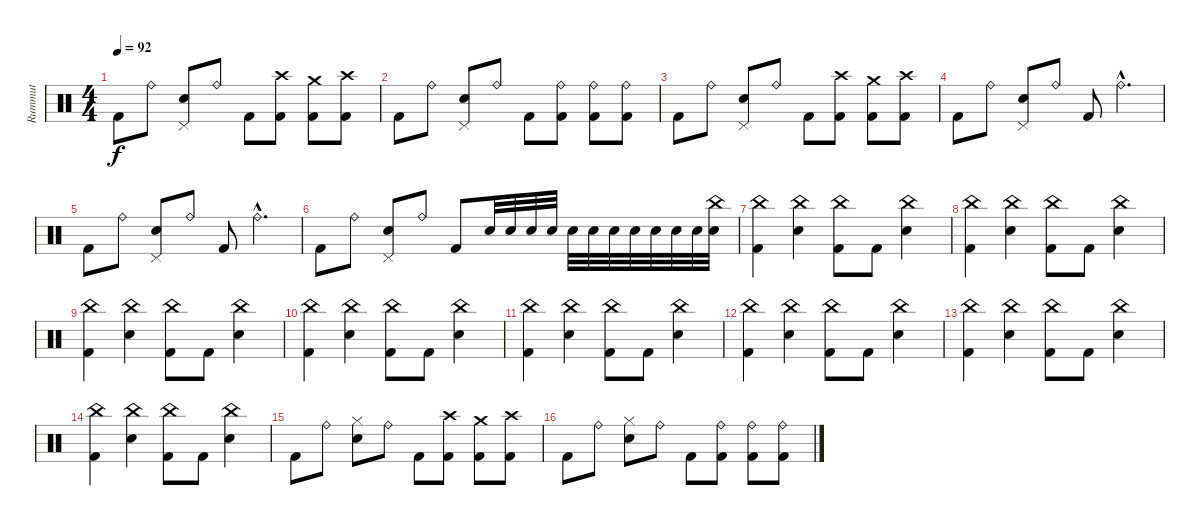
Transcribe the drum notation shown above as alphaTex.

\track ("Rummut" "Rummut") {instrument percussion}
\staff {score}
\articulation defaults
\ts (4 4)
\tempo 92
\clef neutral
\ks c "Kick (hit) 2".8{dy f} "Ride (bell)".8
("Pedal Hi-Hat (hit)" "Snare (hit) 2").8 "Ride (bell)".8 "Kick (hit) 2".8 ("Crash high (hit)" "Kick (hit) 2").8 ("Crash medium (hit)" "Kick (hit) 2").8 ("Crash high (hit)" "Kick (hit) 2").8 |
"Kick (hit) 2".8 "Ride (bell)".8 ("Pedal Hi-Hat (hit)" "Snare (hit) 2").8 "Ride (bell)".8 "Kick (hit) 2".8 ("Ride (bell)" "Kick (hit) 2").8 ("Ride (bell)" "Kick (hit) 2").8 ("Ride (bell)" "Kick (hit) 2").8 |
"Kick (hit) 2".8 "Ride (bell)".8 ("Pedal Hi-Hat (hit)" "Snare (hit) 2").8 "Ride (bell)".8 "Kick (hit) 2".8 ("Crash high (hit)" "Kick (hit) 2").8 ("Crash medium (hit)" "Kick (hit) 2").8 ("Crash high (hit)" "Kick (hit) 2").8 |
"Kick (hit) 2".8 "Ride (bell)".8 ("Pedal Hi-Hat (hit)" "Snare (hit) 2").8 "Ride (bell)".8 "Kick (hit) 2".8 "Ride (bell)"{hac}.4{d} |
"Kick (hit) 2".8 "Ride (bell)".8 ("Pedal Hi-Hat (hit)" "Snare (hit) 2").8 "Ride (bell)".8 "Kick (hit) 2".8 "Ride (bell)"{hac}.4{d} |
"Kick (hit) 2".8 "Ride (bell)".8 ("Pedal Hi-Hat (hit)" "Snare (hit) 2").8 "Ride (bell)".8 "Kick (hit) 2".8 "Snare (hit) 2".32 "Snare (hit) 2".32 "Snare (hit) 2".32 "Snare (hit) 2".32 "Snare (hit) 2".32 "Snare (hit) 2".32 "Snare (hit) 2".32 "Snare (hit) 2".32 "Snare (hit) 2".32 "Snare (hit) 2".32 "Snare (hit) 2".32 ("China (hit)" "Snare (hit) 2").32 |
("China (hit)" "Kick (hit) 2").4 ("China (hit)" "Snare (hit) 2").4 ("China (hit)" "Kick (hit) 2").8 "Kick (hit) 2".8 ("China (hit)" "Snare (hit) 2").4 |
("China (hit)" "Kick (hit) 2").4 ("China (hit)" "Snare (hit) 2").4 ("China (hit)" "Kick (hit) 2").8 "Kick (hit) 2".8 ("China (hit)" "Snare (hit) 2").4 |
("China (hit)" "Kick (hit) 2").4 ("China (hit)" "Snare (hit) 2").4 ("China (hit)" "Kick (hit) 2").8 "Kick (hit) 2".8 ("China (hit)" "Snare (hit) 2").4 |
("China (hit)" "Kick (hit) 2").4 ("China (hit)" "Snare (hit) 2").4 ("China (hit)" "Kick (hit) 2").8 "Kick (hit) 2".8 ("China (hit)" "Snare (hit) 2").4 |
("China (hit)" "Kick (hit) 2").4 ("China (hit)" "Snare (hit) 2").4 ("China (hit)" "Kick (hit) 2").8 "Kick (hit) 2".8 ("China (hit)" "Snare (hit) 2").4 |
("China (hit)" "Kick (hit) 2").4 ("China (hit)" "Snare (hit) 2").4 ("China (hit)" "Kick (hit) 2").8 "Kick (hit) 2".8 ("China (hit)" "Snare (hit) 2").4 |
("China (hit)" "Kick (hit) 2").4 ("China (hit)" "Snare (hit) 2").4 ("China (hit)" "Kick (hit) 2").8 "Kick (hit) 2".8 ("China (hit)" "Snare (hit) 2").4 |
("China (hit)" "Kick (hit) 2").4 ("China (hit)" "Snare (hit) 2").4 ("China (hit)" "Kick (hit) 2").8 "Kick (hit) 2".8 ("China (hit)" "Snare (hit) 2").4 |
"Kick (hit) 2".8 "Ride (bell)".8 ("Hi-Hat (closed)" "Snare (hit) 2").8 "Ride (bell)".8 "Kick (hit) 2".8 ("Crash high (hit)" "Kick (hit) 2").8 ("Crash medium (hit)" "Kick (hit) 2").8 ("Crash high (hit)" "Kick (hit) 2").8 |
"Kick (hit) 2".8 "Ride (bell)".8 ("Hi-Hat (closed)" "Snare (hit) 2").8 "Ride (bell)".8 "Kick (hit) 2".8 ("Ride (bell)" "Kick (hit) 2").8 ("Ride (bell)" "Kick (hit) 2").8 ("Ride (bell)" "Kick (hit) 2").8
